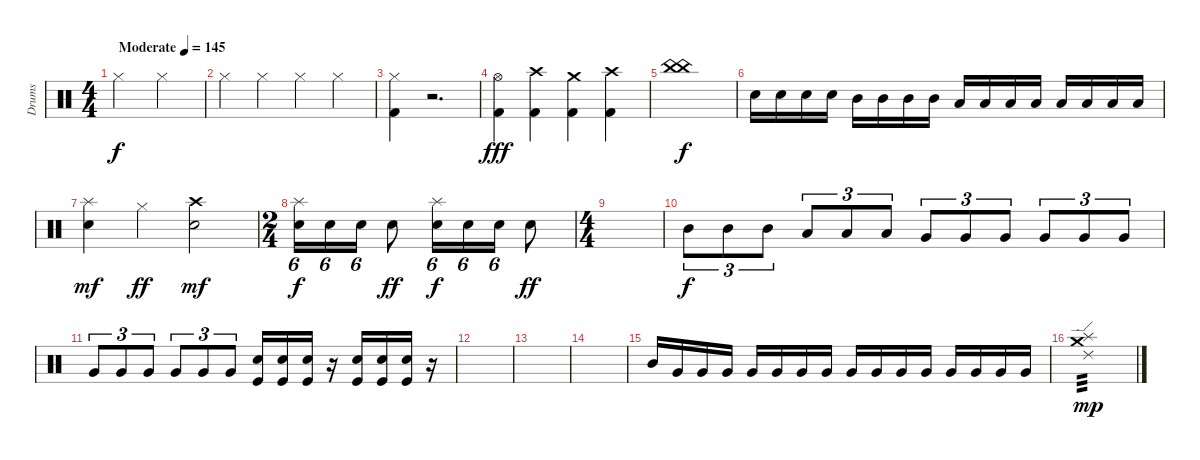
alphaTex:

\track ("Drums" "Drums") {instrument percussion}
\staff {score}
\articulation defaults
\ts (4 4)
\tempo (145 "Moderate")
\clef neutral
\ks c "Hi-Hat (closed)".2{dy f} "Hi-Hat (closed)".2
|
"Hi-Hat (closed)".4 "Hi-Hat (closed)".4 "Hi-Hat (closed)".4 "Hi-Hat (closed)".4 |
("Hi-Hat (closed)" "Kick (hit) 2").4 r.2{d} |
("Hi-Hat (open)" "Kick (hit) 2").4{dy fff} ("Crash high (hit)" "Kick (hit) 2").4 ("Crash medium (hit)" "Kick (hit) 2").4 ("Crash high (hit)" "Kick (hit) 2").4 |
("China (hit)" "China (hit)").1{dy f} |
"Snare (hit) 2".16 "Snare (hit) 2".16 "Snare (hit) 2".16 "Snare (hit) 2".16 "Mid Tom (hit)".16 "Mid Tom (hit)".16 "Mid Tom (hit)".16 "Mid Tom (hit)".16 "Low Tom (hit)".16 "Low Tom (hit)".16 "Low Tom (hit)".16 "Low Tom (hit)".16 "Low Floor Tom (hit)".16 "Low Floor Tom (hit)".16 "Low Floor Tom (hit)".16 "Low Floor Tom (hit)".16 |
("Snare (hit) 2" "Splash (hit)").4{dy mf} "Hi-Hat (closed)".4{dy ff} ("Crash high (hit)" "Snare (hit) 2").2{dy mf} |
\ts (2 4)
("Electric Snare (hit)" "Splash (hit)").16{tu (6 4) dy f} "Electric Snare (hit)".16{tu (6 4)} "Electric Snare (hit)".16{tu (6 4)} "Electric Snare (hit)".8{dy ff} ("Electric Snare (hit)" "Splash (hit)").16{tu (6 4) dy f} "Electric Snare (hit)".16{tu (6 4)} "Electric Snare (hit)".16{tu (6 4)} "Electric Snare (hit)".8{dy ff} |
\ts (4 4)
|
"Mid Tom (hit)".8{tu (3 2) dy f} "Mid Tom (hit)".8{tu (3 2)} "Mid Tom (hit)".8{tu (3 2)} "Low Tom (hit)".8{tu (3 2)} "Low Tom (hit)".8{tu (3 2)} "Low Tom (hit)".8{tu (3 2)} "Very Low Tom (hit)".8{tu (3 2)} "Very Low Tom (hit)".8{tu (3 2)} "Very Low Tom (hit)".8{tu (3 2)} "Very Low Tom (hit)".8{tu (3 2)} "Very Low Tom (hit)".8{tu (3 2)} "Very Low Tom (hit)".8{tu (3 2)} |
"Very Low Tom (hit)".8{tu (3 2)} "Very Low Tom (hit)".8{tu (3 2)} "Very Low Tom (hit)".8{tu (3 2)} "Very Low Tom (hit)".8{tu (3 2)} "Very Low Tom (hit)".8{tu (3 2)} "Very Low Tom (hit)".8{tu (3 2)} ("Snare (hit) 2" "Kick (hit)").16 ("Snare (hit) 2" "Kick (hit)").16 ("Snare (hit) 2" "Kick (hit)").16 r.16 ("Snare (hit) 2" "Kick (hit)").16 ("Snare (hit) 2" "Kick (hit)").16 ("Snare (hit) 2" "Kick (hit)").16 r.16 |
|
|
|
"Mid Tom (hit)".16 "Very Low Tom (hit)".16 "Very Low Tom (hit)".16 "Very Low Tom (hit)".16 "Very Low Tom (hit)".16 "Very Low Tom (hit)".16 "Very Low Tom (hit)".16 "Very Low Tom (hit)".16 "Very Low Tom (hit)".16 "Very Low Tom (hit)".16 "Very Low Tom (hit)".16 "Very Low Tom (hit)".16 "Very Low Tom (hit)".16 "Very Low Tom (hit)".16 "Very Low Tom (hit)".16 "Very Low Tom (hit)".16 |
("Ride (edge) 2" "Splash (hit)" "Crash medium (hit)").1{tp 3 dy mp}
